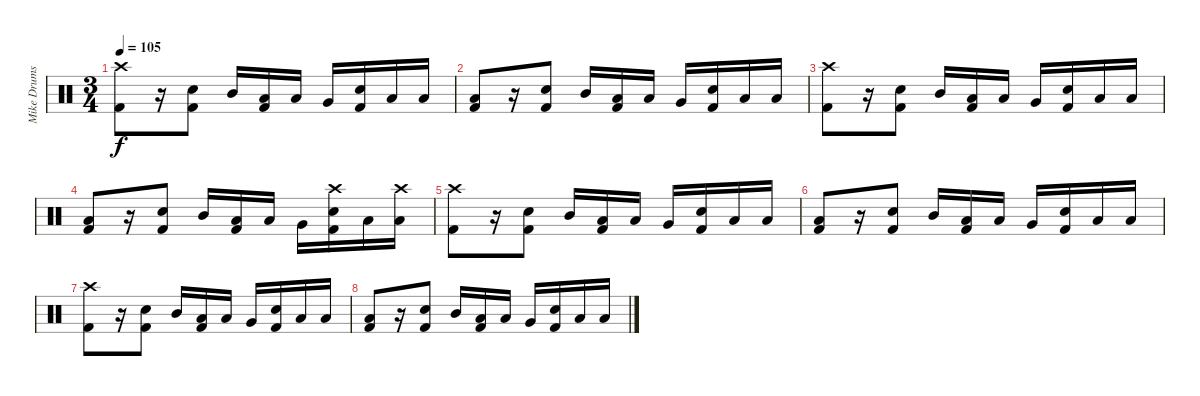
\track ("Mike Drums" "Mike Drums") {instrument percussion}
\staff {score}
\articulation defaults
\ts (3 4)
\tempo 105
\clef neutral
\ks c
("Crash high (hit)" "Kick (hit) 2").8{dy f} r.16 ("Electric Snare (hit)" "Kick (hit) 2").8 "Mid Tom (hit)".16 ("Low Tom (hit)" "Kick (hit) 2").16 "Low Tom (hit)".16 "Very Low Tom (hit)".16 ("Electric Snare (hit)" "Kick (hit) 2").16 "Low Floor Tom (hit)".16 "Low Floor Tom (hit)".16 |
("Low Floor Tom (hit)" "Kick (hit) 2").8 r.16 ("Electric Snare (hit)" "Kick (hit) 2").8 "Mid Tom (hit)".16 ("Low Tom (hit)" "Kick (hit) 2").16 "Low Tom (hit)".16 "Very Low Tom (hit)".16 ("Electric Snare (hit)" "Kick (hit) 2").16 "Low Floor Tom (hit)".16 "Low Floor Tom (hit)".16 |
("Crash high (hit)" "Kick (hit) 2").8 r.16 ("Electric Snare (hit)" "Kick (hit) 2").8 "Mid Tom (hit)".16 ("Low Tom (hit)" "Kick (hit) 2").16 "Low Tom (hit)".16 "Very Low Tom (hit)".16 ("Electric Snare (hit)" "Kick (hit) 2").16 "Low Floor Tom (hit)".16 "Low Floor Tom (hit)".16 |
("Low Floor Tom (hit)" "Kick (hit) 2").8 r.16 ("Electric Snare (hit)" "Kick (hit) 2").8 "Mid Tom (hit)".16 ("Low Tom (hit)" "Kick (hit) 2").16 "Low Tom (hit)".16 "Very Low Tom (hit)".16 ("Electric Snare (hit)" "Crash high (hit)" "Kick (hit) 2").16 "Low Floor Tom (hit)".16 ("Low Floor Tom (hit)" "Crash high (hit)").16 |
("Crash high (hit)" "Kick (hit) 2").8 r.16 ("Electric Snare (hit)" "Kick (hit) 2").8 "Mid Tom (hit)".16 ("Low Tom (hit)" "Kick (hit) 2").16 "Low Tom (hit)".16 "Very Low Tom (hit)".16 ("Electric Snare (hit)" "Kick (hit) 2").16 "Low Floor Tom (hit)".16 "Low Floor Tom (hit)".16 |
("Low Floor Tom (hit)" "Kick (hit) 2").8 r.16 ("Electric Snare (hit)" "Kick (hit) 2").8 "Mid Tom (hit)".16 ("Low Tom (hit)" "Kick (hit) 2").16 "Low Tom (hit)".16 "Very Low Tom (hit)".16 ("Electric Snare (hit)" "Kick (hit) 2").16 "Low Floor Tom (hit)".16 "Low Floor Tom (hit)".16 |
("Crash high (hit)" "Kick (hit) 2").8 r.16 ("Electric Snare (hit)" "Kick (hit) 2").8 "Mid Tom (hit)".16 ("Low Tom (hit)" "Kick (hit) 2").16 "Low Tom (hit)".16 "Very Low Tom (hit)".16 ("Electric Snare (hit)" "Kick (hit) 2").16 "Low Floor Tom (hit)".16 "Low Floor Tom (hit)".16 |
("Low Floor Tom (hit)" "Kick (hit) 2").8 r.16 ("Electric Snare (hit)" "Kick (hit) 2").8 "Mid Tom (hit)".16 ("Low Tom (hit)" "Kick (hit) 2").16 "Low Tom (hit)".16 "Very Low Tom (hit)".16 ("Electric Snare (hit)" "Kick (hit) 2").16 "Low Floor Tom (hit)".16 "Low Floor Tom (hit)".16
